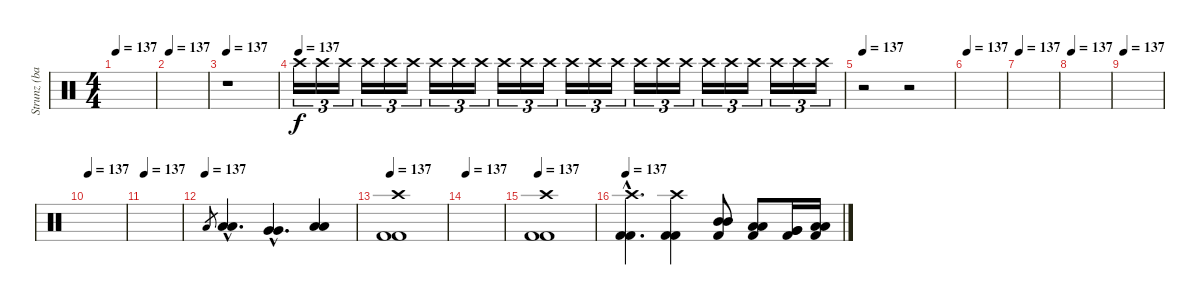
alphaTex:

\track ("Strunz (bateria)" "Strunz (ba") {instrument percussion}
\staff {score}
\articulation defaults
\ts (4 4)
\tempo 137
\clef neutral
\ks c
|
\tempo 137
|
\tempo 137
r.1{volume 0} |
\tempo (137)
"Crash high (hit)".16{tu (3 2) volume 10} "Crash high (hit)".16{tu (3 2)} "Crash high (hit)".16{tu (3 2)} "Crash high (hit)".16{tu (3 2)} "Crash high (hit)".16{tu (3 2)} "Crash high (hit)".16{tu (3 2)} "Crash high (hit)".16{tu (3 2)} "Crash high (hit)".16{tu (3 2)} "Crash high (hit)".16{tu (3 2)} "Crash high (hit)".16{tu (3 2)} "Crash high (hit)".16{tu (3 2)} "Crash high (hit)".16{tu (3 2)} "Crash high (hit)".16{tu (3 2)} "Crash high (hit)".16{tu (3 2)} "Crash high (hit)".16{tu (3 2)} "Crash high (hit)".16{tu (3 2)} "Crash high (hit)".16{tu (3 2)} "Crash high (hit)".16{tu (3 2)} "Crash high (hit)".16{tu (3 2)} "Crash high (hit)".16{tu (3 2)} "Crash high (hit)".16{tu (3 2)} "Crash high (hit)".16{tu (3 2)} "Crash high (hit)".16{tu (3 2)} "Crash high (hit)".16{tu (3 2)} |
\tempo 137
r.2 r.2{volume 13} |
\tempo 137
|
\tempo 137
|
\tempo 137
|
\tempo 137
|
\tempo 137
|
\tempo 137
|
\tempo (137)
"Low Tom (hit)".8{gr} ("Low Tom (hit)"{hac} "Low Tom (hit)"{hac}).4{d} ("Very Low Tom (hit)"{hac} "Very Low Tom (hit)"{hac}).4{d} ("Low Floor Tom (hit)" "Low Floor Tom (hit)").4 |
\tempo 137
("Crash high (hit)" "Kick (hit) 2" "Kick (hit) 2").1 |
\tempo 137
|
\tempo 137
("Crash high (hit)" "Kick (hit) 2" "Kick (hit) 2").1 |
\tempo 137
("Crash high (hit)"{hac} "Kick (hit) 2"{hac} "Kick (hit) 2"{hac}).4{d} ("Crash high (hit)" "Kick (hit) 2" "Kick (hit) 2").4 ("Mid Tom (hit)" "Mid Tom (hit)" "Kick (hit) 2").8 ("Low Tom (hit)" "Low Tom (hit)" "Kick (hit) 2").8 ("Very Low Tom (hit)" "Very Low Tom (hit)" "Kick (hit) 2").16 ("Low Floor Tom (hit)" "Low Floor Tom (hit)" "Kick (hit) 2").16
